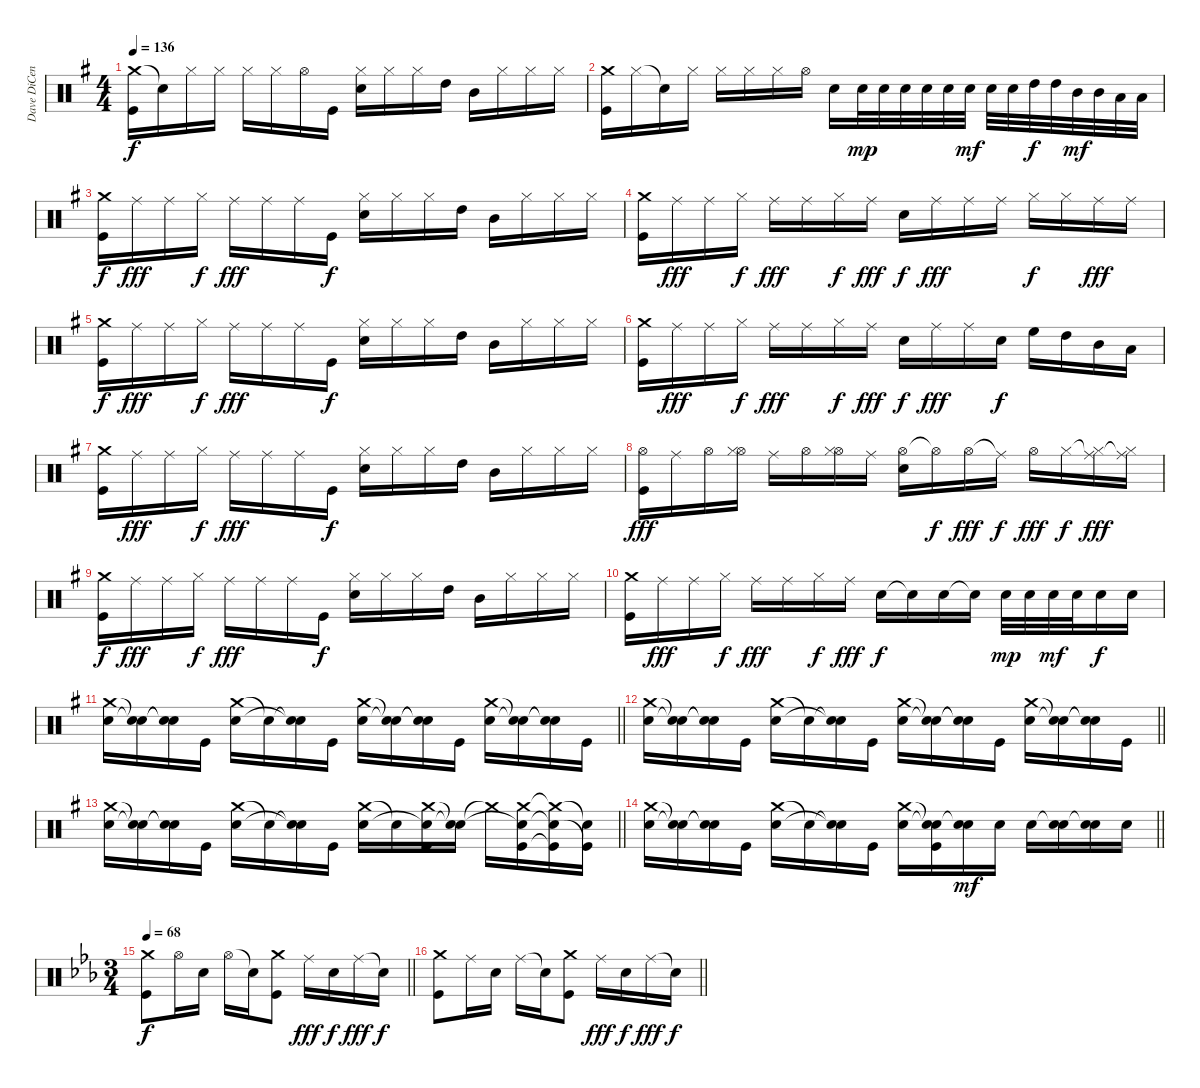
\track ("Dave DiCenso" "Dave DiCen") {instrument percussion}
\staff {score}
\articulation defaults
\ts (4 4)
\tempo 136
\clef neutral
\ks g
("Crash medium (hit)" "Kick (hit)").16{dy f} "Snare (hit)"{t}.16 "Hi-Hat (closed)".16 "Hi-Hat (closed)".16 "Hi-Hat (closed)".16 "Hi-Hat (closed)".16 "Hi-Hat (open)".16 "Kick (hit)".16 ("Electric Snare (hit)" "Hi-Hat (closed)").16 "Hi-Hat (closed)".16 "Hi-Hat (closed)".16 "High Tom (hit)".16 "Mid Tom (hit)".16 "Hi-Hat (closed)".16 "Hi-Hat (closed)".16 "Hi-Hat (closed)".16 |
("Crash medium (hit)" "Kick (hit)").16 "Hi-Hat (closed)".16 "Snare (hit)"{t}.16 "Hi-Hat (closed)".16 "Hi-Hat (closed)".16 "Hi-Hat (closed)".16 "Hi-Hat (closed)".16 "Hi-Hat (open)".16 "Electric Snare (hit)".16 "Electric Snare (hit)".32{dy mp} "Electric Snare (hit)".32 "Electric Snare (hit)".32 "Electric Snare (hit)".32 "Electric Snare (hit)".32 "Electric Snare (hit)".32{dy mf} "Electric Snare (hit)".32 "Electric Snare (hit)".32 "High Tom (hit)".32{dy f} "High Tom (hit)".32 "Mid Tom (hit)".32{dy mf} "Mid Tom (hit)".32 "Low Tom (hit)".32 "Low Tom (hit)".32 |
("Crash medium (hit)" "Kick (hit)").16{dy f} "Ride (middle)".16{dy fff} "Ride (middle)".16 "Hi-Hat (closed)".16{dy f} "Ride (middle)".16{dy fff} "Ride (middle)".16 "Ride (middle)".16 "Kick (hit)".16{dy f} ("Electric Snare (hit)" "Hi-Hat (closed)").16 "Hi-Hat (closed)".16 "Hi-Hat (closed)".16 "High Tom (hit)".16 "Mid Tom (hit)".16 "Hi-Hat (closed)".16 "Hi-Hat (closed)".16 "Hi-Hat (closed)".16 |
("Crash medium (hit)" "Kick (hit)").16 "Ride (middle)".16{dy fff} "Ride (middle)".16 "Hi-Hat (closed)".16{dy f} "Ride (middle)".16{dy fff} "Ride (middle)".16 "Hi-Hat (closed)".16{dy f} "Ride (middle)".16{dy fff} "Electric Snare (hit)".16{dy f} "Ride (middle)".16{dy fff} "Ride (middle)".16 "Ride (middle)".16 "Hi-Hat (closed)".16{dy f} "Hi-Hat (closed)".16 "Ride (middle)".16{dy fff} "Ride (middle)".16 |
("Crash medium (hit)" "Kick (hit)").16{dy f} "Ride (middle)".16{dy fff} "Ride (middle)".16 "Hi-Hat (closed)".16{dy f} "Ride (middle)".16{dy fff} "Ride (middle)".16 "Ride (middle)".16 "Kick (hit)".16{dy f} ("Electric Snare (hit)" "Hi-Hat (closed)").16 "Hi-Hat (closed)".16 "Hi-Hat (closed)".16 "High Tom (hit)".16 "Mid Tom (hit)".16 "Hi-Hat (closed)".16 "Hi-Hat (closed)".16 "Hi-Hat (closed)".16 |
("Crash medium (hit)" "Kick (hit)").16 "Ride (middle)".16{dy fff} "Ride (middle)".16 "Hi-Hat (closed)".16{dy f} "Ride (middle)".16{dy fff} "Ride (middle)".16 "Hi-Hat (closed)".16{dy f} "Ride (middle)".16{dy fff} "Electric Snare (hit)".16{dy f} "Ride (middle)".16{dy fff} "Ride (middle)".16 "Electric Snare (hit)".16{dy f} "High Floor Tom (hit)".16 "High Tom (hit)".16 "Mid Tom (hit)".16 "Low Tom (hit)".16 |
("Crash medium (hit)" "Kick (hit)").16 "Ride (middle)".16{dy fff} "Ride (middle)".16 "Hi-Hat (closed)".16{dy f} "Ride (middle)".16{dy fff} "Ride (middle)".16 "Ride (middle)".16 "Kick (hit)".16{dy f} ("Electric Snare (hit)" "Hi-Hat (closed)").16 "Hi-Hat (closed)".16 "Hi-Hat (closed)".16 "High Tom (hit)".16 "Mid Tom (hit)".16 "Hi-Hat (closed)".16 "Hi-Hat (closed)".16 "Hi-Hat (closed)".16 |
("Hi-Hat (open)" "Kick (hit)").16{dy fff} "Ride (middle)".16 "Hi-Hat (open)".16 ("Hi-Hat (open)" "Hi-Hat (closed)").16 "Ride (middle)".16 "Hi-Hat (open)".16 ("Hi-Hat (open)" "Hi-Hat (closed)").16 "Ride (middle)".16 ("Hi-Hat (open)" "Electric Snare (hit)").16 "Hi-Hat (open)"{t}.16{dy f} "Hi-Hat (open)".16{dy fff} "Ride (middle)"{t}.16{dy f} "Hi-Hat (open)".16{dy fff} "Hi-Hat (closed)".16{dy f} ("Ride (middle)"{t} "Hi-Hat (closed)").16{dy fff} ("Ride (middle)"{t} "Hi-Hat (closed)").16 |
("Crash medium (hit)" "Kick (hit)").16{dy f} "Ride (middle)".16{dy fff} "Ride (middle)".16 "Hi-Hat (closed)".16{dy f} "Ride (middle)".16{dy fff} "Ride (middle)".16 "Ride (middle)".16 "Kick (hit)".16{dy f} ("Electric Snare (hit)" "Hi-Hat (closed)").16 "Hi-Hat (closed)".16 "Hi-Hat (closed)".16 "High Tom (hit)".16 "Mid Tom (hit)".16 "Hi-Hat (closed)".16 "Hi-Hat (closed)".16 "Hi-Hat (closed)".16 |
("Crash medium (hit)" "Kick (hit)").16 "Ride (middle)".16{dy fff} "Ride (middle)".16 "Hi-Hat (closed)".16{dy f} "Ride (middle)".16{dy fff} "Ride (middle)".16 "Hi-Hat (closed)".16{dy f} "Ride (middle)".16{dy fff} "Electric Snare (hit)".16{dy f} "Electric Snare (hit)"{t}.16 "Electric Snare (hit)".16 "Snare (hit)"{t}.16 "Electric Snare (hit)".32{dy mp} "Electric Snare (hit)".32 "Electric Snare (hit)".32{dy mf} "Electric Snare (hit)".32 "Electric Snare (hit)".16{dy f} "Electric Snare (hit)".16 |
\barLineRight lightlight
("Crash medium (hit)" "Electric Snare (hit)").16 ("Snare (hit)"{t} "Snare (hit)"{t}).16 ("Snare (hit)"{t} "Snare (hit)"{t}).16 "Kick (hit)".16 ("Crash medium (hit)" "Electric Snare (hit)").16 "Snare (hit)"{t}.16 ("Snare (hit)"{t} "Snare (hit)"{t}).16 "Kick (hit)".16 ("Crash medium (hit)" "Electric Snare (hit)").16 ("Snare (hit)"{t} "Snare (hit)"{t}).16 ("Snare (hit)"{t} "Snare (hit)"{t}).16 "Kick (hit)".16 ("Crash medium (hit)" "Electric Snare (hit)").16 ("Snare (hit)"{t} "Snare (hit)"{t}).16 ("Snare (hit)"{t} "Snare (hit)"{t}).16 "Kick (hit)".16 |
\barLineRight lightlight
("Crash medium (hit)" "Electric Snare (hit)").16 ("Snare (hit)"{t} "Snare (hit)"{t}).16 ("Snare (hit)"{t} "Snare (hit)"{t}).16 "Kick (hit)".16 ("Crash medium (hit)" "Electric Snare (hit)").16 "Snare (hit)"{t}.16 ("Snare (hit)"{t} "Snare (hit)"{t}).16 "Kick (hit)".16 ("Crash medium (hit)" "Electric Snare (hit)").16 ("Snare (hit)"{t} "Snare (hit)"{t}).16 ("Snare (hit)"{t} "Snare (hit)"{t}).16 "Kick (hit)".16 ("Crash medium (hit)" "Electric Snare (hit)").16 ("Snare (hit)"{t} "Snare (hit)"{t}).16 ("Snare (hit)"{t} "Snare (hit)"{t}).16 "Kick (hit)".16 |
\barLineRight lightlight
("Crash medium (hit)" "Electric Snare (hit)").16 ("Snare (hit)"{t} "Snare (hit)"{t}).16 ("Snare (hit)"{t} "Snare (hit)"{t}).16 "Kick (hit)".16 ("Crash medium (hit)" "Electric Snare (hit)").16 "Snare (hit)"{t}.16 ("Snare (hit)"{t} "Snare (hit)"{t}).16 "Kick (hit)".16 ("Crash medium (hit)" "Electric Snare (hit)").16 "Snare (hit)"{t}.16 ("Crash medium (hit)" "Snare (hit)"{t} "Kick (hit)").16 ("Snare (hit)"{t} "Snare (hit)"{t}).16 "Crash medium (hit)"{t}.16 ("Crash medium (hit)" "Snare (hit)"{t} "Kick (hit)").16 ("Crash medium (hit)"{t} "Snare (hit)"{t} "Kick (hit)"{t}).16 ("Snare (hit)"{t} "Kick (hit)"{t}).16 |
\barLineRight lightlight
("Crash medium (hit)" "Electric Snare (hit)").16 ("Snare (hit)"{t} "Snare (hit)"{t}).16 ("Snare (hit)"{t} "Snare (hit)"{t}).16 "Kick (hit)".16 ("Crash medium (hit)" "Electric Snare (hit)").16 "Snare (hit)"{t}.16 ("Snare (hit)"{t} "Snare (hit)"{t}).16 "Kick (hit)".16 ("Crash medium (hit)" "Electric Snare (hit)").16 ("Snare (hit)"{t} "Snare (hit)"{t} "Kick (hit)").16 ("Snare (hit)"{t} "Electric Snare (hit)").16{dy mf} "Electric Snare (hit)".16 "Electric Snare (hit)".16 ("Snare (hit)"{t} "Electric Snare (hit)").16 ("Snare (hit)"{t} "Electric Snare (hit)").16 "Electric Snare (hit)".16 |
\ts (3 4)
\tempo 68
\barLineRight lightlight
\ks eb
("Crash medium (hit)" "Kick (hit)").8{dy f} "Hi-Hat (open)".16 "Electric Snare (hit)".16 "Hi-Hat (open)".16 "Snare (hit)"{t}.16 ("Crash medium (hit)" "Kick (hit)").8 "Ride (middle)".16{dy fff} "Electric Snare (hit)".16{dy f} "Ride (middle)".16{dy fff} "Snare (hit)"{t}.16{dy f} |
\barLineRight lightlight
("Crash medium (hit)" "Kick (hit)").8 "Ride (middle)".16 "Electric Snare (hit)".16 "Ride (middle)".16 "Snare (hit)"{t}.16 ("Crash medium (hit)" "Kick (hit)").8 "Ride (middle)".16{dy fff} "Electric Snare (hit)".16{dy f} "Ride (middle)".16{dy fff} "Snare (hit)"{t}.16{dy f}
